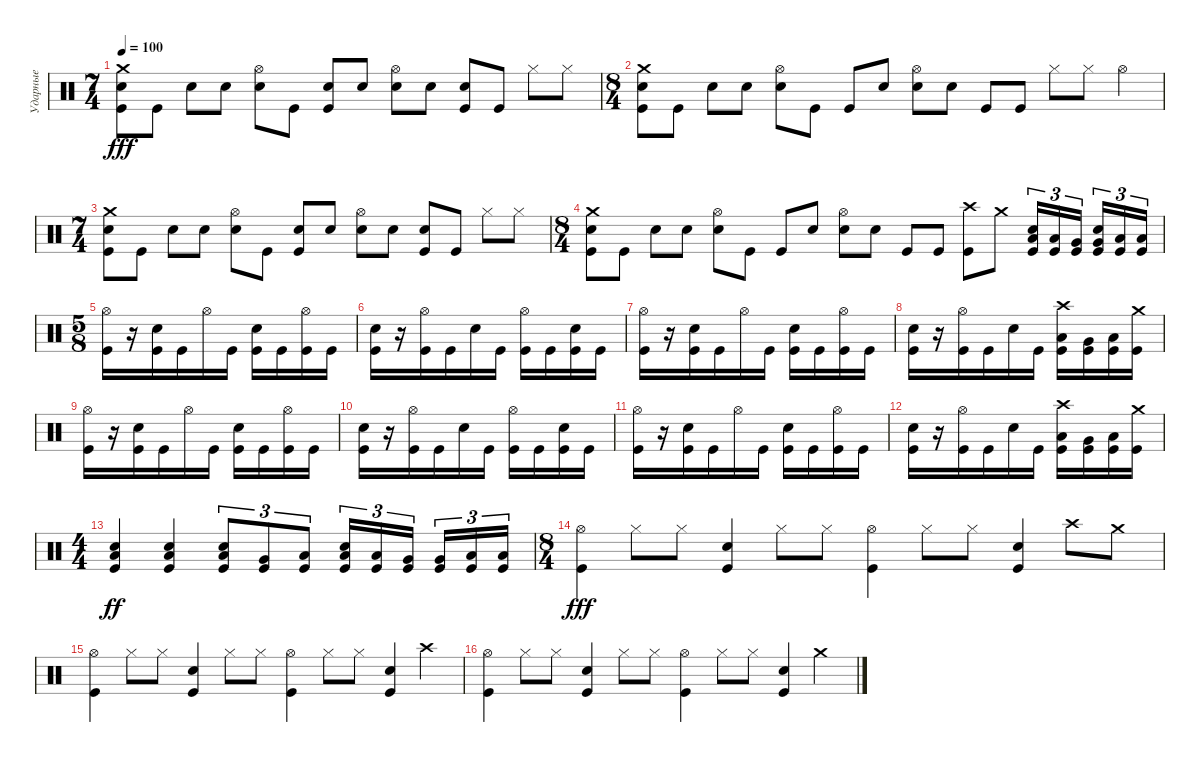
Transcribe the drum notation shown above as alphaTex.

\track ("Ударные" "Ударные") {instrument percussion}
\staff {score}
\articulation defaults
\ts (7 4)
\tempo 100
\clef neutral
\ks c
("Kick (hit)" "Snare (hit) 2" "Crash medium (hit)").8{dy fff} "Kick (hit)".8 "Snare (hit)".8 "Snare (hit)".8 ("Snare (hit)" "Hi-Hat (open)").8 "Kick (hit)".8 ("Kick (hit)" "Snare (hit) 2").8 "Snare (hit)".8 ("Snare (hit)" "Hi-Hat (open)").8 "Snare (hit)".8 ("Kick (hit)" "Snare (hit) 2").8 "Kick (hit)".8 "Hi-Hat (closed)".8 "Hi-Hat (closed)".8 |
\ts (8 4)
("Kick (hit)" "Snare (hit) 2" "Crash medium (hit)").8 "Kick (hit)".8 "Snare (hit)".8 "Snare (hit)".8 ("Snare (hit)" "Hi-Hat (open)").8 "Kick (hit)".8 "Kick (hit)".8 "Snare (hit)".8 ("Snare (hit)" "Hi-Hat (open)").8 "Snare (hit)".8 "Kick (hit)".8 "Kick (hit)".8 "Hi-Hat (closed)".8 "Hi-Hat (closed)".8 "Hi-Hat (open)".4 |
\ts (7 4)
("Kick (hit)" "Snare (hit) 2" "Crash medium (hit)").8 "Kick (hit)".8 "Snare (hit)".8 "Snare (hit)".8 ("Snare (hit)" "Hi-Hat (open)").8 "Kick (hit)".8 ("Kick (hit)" "Snare (hit) 2").8 "Snare (hit)".8 ("Snare (hit)" "Hi-Hat (open)").8 "Snare (hit)".8 ("Kick (hit)" "Snare (hit) 2").8 "Kick (hit)".8 "Hi-Hat (closed)".8 "Hi-Hat (closed)".8 |
\ts (8 4)
("Kick (hit)" "Snare (hit) 2" "Crash medium (hit)").8 "Kick (hit)".8 "Snare (hit)".8 "Snare (hit)".8 ("Snare (hit)" "Hi-Hat (open)").8 "Kick (hit)".8 "Kick (hit)".8 "Snare (hit)".8 ("Snare (hit)" "Hi-Hat (open)").8 "Snare (hit)".8 "Kick (hit)".8 "Kick (hit)".8 ("Kick (hit)" "Crash high (hit)").8 "Crash medium (hit)".8 ("Low Tom (hit)" "Kick (hit)" "Snare (hit) 2").16{tu (3 2)} ("Low Tom (hit)" "Kick (hit)").16{tu (3 2)} ("Very Low Tom (hit)" "Kick (hit)").16{tu (3 2) beam splitsecondary} ("Very Low Tom (hit)" "Kick (hit)" "Snare (hit) 2").16{tu (3 2)} ("Low Floor Tom (hit)" "Kick (hit)").16{tu (3 2)} ("Low Floor Tom (hit)" "Kick (hit)").16{tu (3 2)} |
\ts (5 8)
("Kick (hit)" "Hi-Hat (open)").16 r.16 ("Kick (hit)" "Snare (hit) 2").16 "Kick (hit)".16 "Hi-Hat (open)".16 "Kick (hit)".16 ("Kick (hit)" "Snare (hit) 2").16 "Kick (hit)".16 ("Kick (hit)" "Hi-Hat (open)").16 "Kick (hit)".16 |
("Kick (hit)" "Snare (hit) 2").16 r.16 ("Kick (hit)" "Hi-Hat (open)").16 "Kick (hit)".16 "Snare (hit) 2".16 "Kick (hit)".16 ("Kick (hit)" "Hi-Hat (open)").16 "Kick (hit)".16 ("Kick (hit)" "Snare (hit) 2").16 "Kick (hit)".16 |
("Kick (hit)" "Hi-Hat (open)").16 r.16 ("Kick (hit)" "Snare (hit) 2").16 "Kick (hit)".16 "Hi-Hat (open)".16 "Kick (hit)".16 ("Kick (hit)" "Snare (hit) 2").16 "Kick (hit)".16 ("Kick (hit)" "Hi-Hat (open)").16 "Kick (hit)".16 |
("Kick (hit)" "Snare (hit) 2").16 r.16 ("Kick (hit)" "Hi-Hat (open)").16 "Kick (hit)".16 "Snare (hit) 2".16 "Kick (hit)".16 ("Kick (hit)" "Low Tom (hit)" "Crash high (hit)").16 ("Kick (hit)" "Very Low Tom (hit)").16 ("Kick (hit)" "Low Floor Tom (hit)").16 ("Kick (hit)" "Crash medium (hit)").16 |
("Kick (hit)" "Hi-Hat (open)").16 r.16 ("Kick (hit)" "Snare (hit) 2").16 "Kick (hit)".16 "Hi-Hat (open)".16 "Kick (hit)".16 ("Kick (hit)" "Snare (hit) 2").16 "Kick (hit)".16 ("Kick (hit)" "Hi-Hat (open)").16 "Kick (hit)".16 |
("Kick (hit)" "Snare (hit) 2").16 r.16 ("Kick (hit)" "Hi-Hat (open)").16 "Kick (hit)".16 "Snare (hit) 2".16 "Kick (hit)".16 ("Kick (hit)" "Hi-Hat (open)").16 "Kick (hit)".16 ("Kick (hit)" "Snare (hit) 2").16 "Kick (hit)".16 |
("Kick (hit)" "Hi-Hat (open)").16 r.16 ("Kick (hit)" "Snare (hit) 2").16 "Kick (hit)".16 "Hi-Hat (open)".16 "Kick (hit)".16 ("Kick (hit)" "Snare (hit) 2").16 "Kick (hit)".16 ("Kick (hit)" "Hi-Hat (open)").16 "Kick (hit)".16 |
("Kick (hit)" "Snare (hit) 2").16 r.16 ("Kick (hit)" "Hi-Hat (open)").16 "Kick (hit)".16 "Snare (hit) 2".16 "Kick (hit)".16 ("Kick (hit)" "Low Tom (hit)" "Crash high (hit)").16 ("Kick (hit)" "Very Low Tom (hit)").16 ("Kick (hit)" "Low Floor Tom (hit)").16 ("Kick (hit)" "Crash medium (hit)").16 |
\ts (4 4)
("Kick (hit)" "Low Tom (hit)" "Snare (hit) 2").4{dy ff} ("Kick (hit)" "Low Tom (hit)" "Snare (hit) 2").4 ("Kick (hit)" "Low Tom (hit)" "Snare (hit) 2").8{tu (3 2)} ("Kick (hit)" "Very Low Tom (hit)").8{tu (3 2)} ("Kick (hit)" "Low Floor Tom (hit)").8{tu (3 2)} ("Kick (hit)" "Low Tom (hit)" "Snare (hit) 2").16{tu (3 2)} ("Kick (hit)" "Low Tom (hit)").16{tu (3 2)} ("Kick (hit)" "Very Low Tom (hit)").16{tu (3 2) beam splitsecondary} ("Kick (hit)" "Very Low Tom (hit)").16{tu (3 2)} ("Kick (hit)" "Low Floor Tom (hit)").16{tu (3 2)} ("Kick (hit)" "Low Floor Tom (hit)").16{tu (3 2)} |
\ts (8 4)
("Kick (hit)" "Hi-Hat (open)").4{dy fff} "Hi-Hat (closed)".8 "Hi-Hat (closed)".8 ("Kick (hit)" "Snare (hit) 2").4 "Hi-Hat (closed)".8 "Hi-Hat (closed)".8 ("Kick (hit)" "Hi-Hat (open)").4 "Hi-Hat (closed)".8 "Hi-Hat (closed)".8 ("Kick (hit)" "Snare (hit) 2").4 "Crash high (hit)".8 "Crash medium (hit)".8 |
("Kick (hit)" "Hi-Hat (open)").4 "Hi-Hat (closed)".8 "Hi-Hat (closed)".8 ("Kick (hit)" "Snare (hit) 2").4 "Hi-Hat (closed)".8 "Hi-Hat (closed)".8 ("Kick (hit)" "Hi-Hat (open)").4 "Hi-Hat (closed)".8 "Hi-Hat (closed)".8 ("Kick (hit)" "Snare (hit) 2").4 "Crash high (hit)".4 |
("Kick (hit)" "Hi-Hat (open)").4 "Hi-Hat (closed)".8 "Hi-Hat (closed)".8 ("Kick (hit)" "Snare (hit) 2").4 "Hi-Hat (closed)".8 "Hi-Hat (closed)".8 ("Kick (hit)" "Hi-Hat (open)").4 "Hi-Hat (closed)".8 "Hi-Hat (closed)".8 ("Kick (hit)" "Snare (hit) 2").4 "Crash medium (hit)".4
